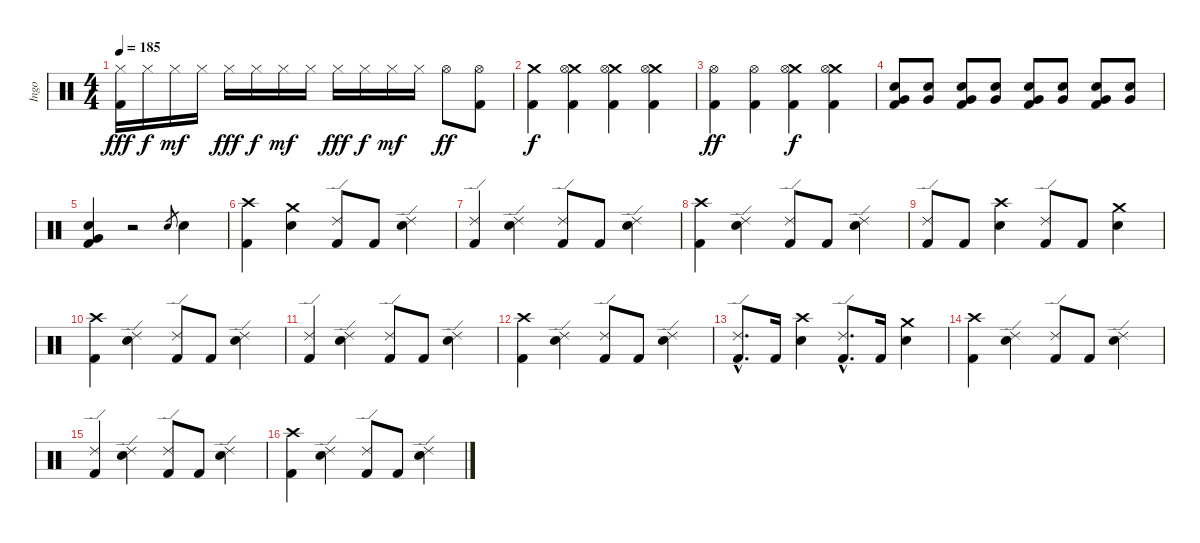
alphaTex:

\track ("Ingo" "Ingo") {instrument percussion}
\staff {score}
\articulation defaults
\ts (4 4)
\tempo 185
\clef neutral
\ks c
("Hi-Hat (closed)" "Kick (hit) 2").16{dy fff} "Hi-Hat (closed)".16{dy f} "Hi-Hat (closed)".16{dy mf} "Hi-Hat (closed)".16 "Hi-Hat (closed)".16{dy fff} "Hi-Hat (closed)".16{dy f} "Hi-Hat (closed)".16{dy mf} "Hi-Hat (closed)".16 "Hi-Hat (closed)".16{dy fff} "Hi-Hat (closed)".16{dy f} "Hi-Hat (closed)".16{dy mf} "Hi-Hat (closed)".16 "Hi-Hat (open)".8{dy ff} ("Hi-Hat (open)" "Kick (hit) 2").8 |
("Crash medium (hit)" "Kick (hit) 2").4{dy f} ("Crash medium (hit)" "Hi-Hat (open)" "Kick (hit) 2").4 ("Crash medium (hit)" "Hi-Hat (open)" "Kick (hit) 2").4 ("Crash medium (hit)" "Hi-Hat (open)" "Kick (hit) 2").4 |
("Hi-Hat (open)" "Kick (hit) 2").4{dy ff} ("Hi-Hat (open)" "Kick (hit) 2").4 ("Crash medium (hit)" "Hi-Hat (open)" "Kick (hit) 2").4{dy f} ("Crash medium (hit)" "Hi-Hat (open)" "Kick (hit) 2").4 |
("Electric Snare (hit)" "Very Low Tom (hit)" "Kick (hit) 2").8 ("Electric Snare (hit)" "Very Low Tom (hit)").8 ("Electric Snare (hit)" "Very Low Tom (hit)" "Kick (hit) 2").8 ("Electric Snare (hit)" "Very Low Tom (hit)").8 ("Electric Snare (hit)" "Very Low Tom (hit)" "Kick (hit) 2").8 ("Electric Snare (hit)" "Very Low Tom (hit)").8 ("Electric Snare (hit)" "Very Low Tom (hit)" "Kick (hit) 2").8 ("Electric Snare (hit)" "Very Low Tom (hit)").8 |
("Electric Snare (hit)" "Very Low Tom (hit)" "Kick (hit) 2").4 r.2 "Electric Snare (hit)".8{gr} "Electric Snare (hit)".4 |
("Crash high (hit)" "Kick (hit) 2").4 ("Crash medium (hit)" "Electric Snare (hit)").4 ("Ride (edge) 2" "Kick (hit) 2").8 "Kick (hit) 2".8 ("Ride (edge) 2" "Electric Snare (hit)").4 |
("Ride (edge) 2" "Kick (hit) 2").4 ("Ride (edge) 2" "Electric Snare (hit)").4 ("Ride (edge) 2" "Kick (hit) 2").8 "Kick (hit) 2".8 ("Ride (edge) 2" "Electric Snare (hit)").4 |
("Crash high (hit)" "Kick (hit) 2").4 ("Ride (edge) 2" "Electric Snare (hit)").4 ("Ride (edge) 2" "Kick (hit) 2").8 "Kick (hit) 2".8 ("Ride (edge) 2" "Electric Snare (hit)").4 |
("Ride (edge) 2" "Kick (hit) 2").8 "Kick (hit) 2".8 ("Crash high (hit)" "Electric Snare (hit)").4 ("Ride (edge) 2" "Kick (hit) 2").8 "Kick (hit) 2".8 ("Crash medium (hit)" "Electric Snare (hit)").4 |
("Crash high (hit)" "Kick (hit) 2").4 ("Ride (edge) 2" "Electric Snare (hit)").4 ("Ride (edge) 2" "Kick (hit) 2").8 "Kick (hit) 2".8 ("Ride (edge) 2" "Electric Snare (hit)").4 |
("Ride (edge) 2" "Kick (hit) 2").4 ("Ride (edge) 2" "Electric Snare (hit)").4 ("Ride (edge) 2" "Kick (hit) 2").8 "Kick (hit) 2".8 ("Ride (edge) 2" "Electric Snare (hit)").4 |
("Crash high (hit)" "Kick (hit) 2").4 ("Ride (edge) 2" "Electric Snare (hit)").4 ("Ride (edge) 2" "Kick (hit) 2").8 "Kick (hit) 2".8 ("Ride (edge) 2" "Electric Snare (hit)").4 |
("Ride (edge) 2"{hac} "Kick (hit) 2"{hac}).8{d} "Kick (hit) 2".16 ("Crash high (hit)" "Electric Snare (hit)").4 ("Ride (edge) 2"{hac} "Kick (hit) 2"{hac}).8{d} "Kick (hit) 2".16 ("Crash medium (hit)" "Electric Snare (hit)").4 |
("Crash high (hit)" "Kick (hit) 2").4 ("Ride (edge) 2" "Electric Snare (hit)").4 ("Ride (edge) 2" "Kick (hit) 2").8 "Kick (hit) 2".8 ("Ride (edge) 2" "Electric Snare (hit)").4 |
("Ride (edge) 2" "Kick (hit) 2").4 ("Ride (edge) 2" "Electric Snare (hit)").4 ("Ride (edge) 2" "Kick (hit) 2").8 "Kick (hit) 2".8 ("Ride (edge) 2" "Electric Snare (hit)").4 |
("Crash high (hit)" "Kick (hit) 2").4 ("Ride (edge) 2" "Electric Snare (hit)").4 ("Ride (edge) 2" "Kick (hit) 2").8 "Kick (hit) 2".8 ("Ride (edge) 2" "Electric Snare (hit)").4
